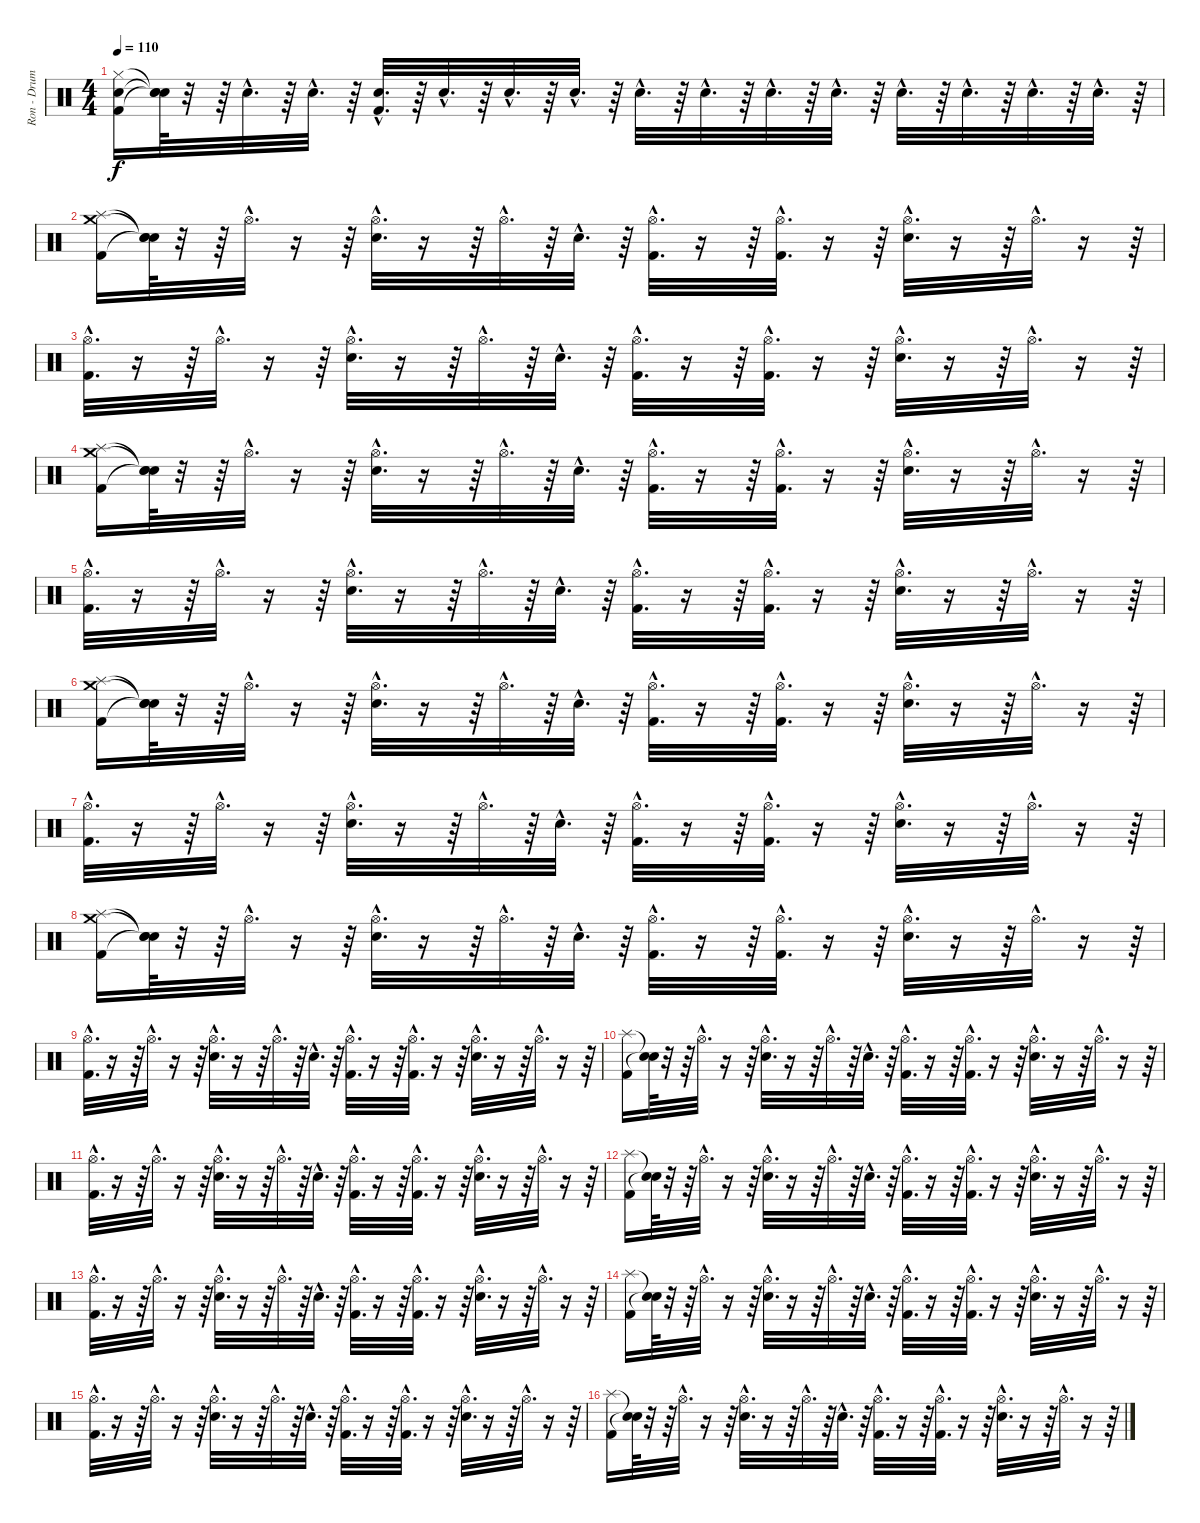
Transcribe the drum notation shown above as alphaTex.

\track ("Ron - Drums" "Ron - Drum") {instrument percussion}
\staff {score}
\articulation defaults
\ts (4 4)
\tempo 110
\clef neutral
\ks c
("Kick (hit) 2" "Electric Snare (hit)" "Hi-Hat (closed)").16{dy f} ("Snare (hit)"{t} "Snare (hit)"{t} "Snare (hit)"{t}).64 r.32 r.64 "Electric Snare (hit)"{hac}.32{d} r.64 "Electric Snare (hit)"{hac}.32{d} r.64 ("Electric Snare (hit)"{hac} "Kick (hit) 2"{hac}).32{d} r.64 "Electric Snare (hit)"{hac}.32{d} r.64 "Electric Snare (hit)"{hac}.32{d} r.64 "Electric Snare (hit)"{hac}.32{d} r.64 "Electric Snare (hit)"{hac}.32{d} r.64 "Electric Snare (hit)"{hac}.32{d} r.64 "Electric Snare (hit)"{hac}.32{d} r.64 "Electric Snare (hit)"{hac}.32{d} r.64 "Electric Snare (hit)"{hac}.32{d} r.64 "Electric Snare (hit)"{hac}.32{d} r.64 "Electric Snare (hit)"{hac}.32{d} r.64 "Electric Snare (hit)"{hac}.32{d} r.64 |
("Crash medium (hit)" "Splash (hit)" "Kick (hit) 2").16 ("Snare (hit)"{t} "Snare (hit)"{t} "Snare (hit)"{t}).64 r.32 r.64 "Hi-Hat (open)"{hac}.32{d} r.16 r.64 ("Hi-Hat (open)"{hac} "Electric Snare (hit)"{hac}).32{d} r.16 r.64 "Hi-Hat (open)"{hac}.32{d} r.64 "Electric Snare (hit)"{hac}.32{d} r.64 ("Hi-Hat (open)"{hac} "Kick (hit) 2"{hac}).32{d} r.16 r.64 ("Hi-Hat (open)"{hac} "Kick (hit) 2"{hac}).32{d} r.16 r.64 ("Hi-Hat (open)"{hac} "Electric Snare (hit)"{hac}).32{d} r.16 r.64 "Hi-Hat (open)"{hac}.32{d} r.16 r.64 |
("Hi-Hat (open)"{hac} "Kick (hit) 2"{hac}).32{d} r.16 r.64 "Hi-Hat (open)"{hac}.32{d} r.16 r.64 ("Hi-Hat (open)"{hac} "Electric Snare (hit)"{hac}).32{d} r.16 r.64 "Hi-Hat (open)"{hac}.32{d} r.64 "Electric Snare (hit)"{hac}.32{d} r.64 ("Hi-Hat (open)"{hac} "Kick (hit) 2"{hac}).32{d} r.16 r.64 ("Hi-Hat (open)"{hac} "Kick (hit) 2"{hac}).32{d} r.16 r.64 ("Hi-Hat (open)"{hac} "Electric Snare (hit)"{hac}).32{d} r.16 r.64 "Hi-Hat (open)"{hac}.32{d} r.16 r.64 |
("Crash medium (hit)" "Splash (hit)" "Kick (hit) 2").16 ("Snare (hit)"{t} "Snare (hit)"{t} "Snare (hit)"{t}).64 r.32 r.64 "Hi-Hat (open)"{hac}.32{d} r.16 r.64 ("Hi-Hat (open)"{hac} "Electric Snare (hit)"{hac}).32{d} r.16 r.64 "Hi-Hat (open)"{hac}.32{d} r.64 "Electric Snare (hit)"{hac}.32{d} r.64 ("Hi-Hat (open)"{hac} "Kick (hit) 2"{hac}).32{d} r.16 r.64 ("Hi-Hat (open)"{hac} "Kick (hit) 2"{hac}).32{d} r.16 r.64 ("Hi-Hat (open)"{hac} "Electric Snare (hit)"{hac}).32{d} r.16 r.64 "Hi-Hat (open)"{hac}.32{d} r.16 r.64 |
("Hi-Hat (open)"{hac} "Kick (hit) 2"{hac}).32{d} r.16 r.64 "Hi-Hat (open)"{hac}.32{d} r.16 r.64 ("Hi-Hat (open)"{hac} "Electric Snare (hit)"{hac}).32{d} r.16 r.64 "Hi-Hat (open)"{hac}.32{d} r.64 "Electric Snare (hit)"{hac}.32{d} r.64 ("Hi-Hat (open)"{hac} "Kick (hit) 2"{hac}).32{d} r.16 r.64 ("Hi-Hat (open)"{hac} "Kick (hit) 2"{hac}).32{d} r.16 r.64 ("Hi-Hat (open)"{hac} "Electric Snare (hit)"{hac}).32{d} r.16 r.64 "Hi-Hat (open)"{hac}.32{d} r.16 r.64 |
("Crash medium (hit)" "Splash (hit)" "Kick (hit) 2").16 ("Snare (hit)"{t} "Snare (hit)"{t} "Snare (hit)"{t}).64 r.32 r.64 "Hi-Hat (open)"{hac}.32{d} r.16 r.64 ("Hi-Hat (open)"{hac} "Electric Snare (hit)"{hac}).32{d} r.16 r.64 "Hi-Hat (open)"{hac}.32{d} r.64 "Electric Snare (hit)"{hac}.32{d} r.64 ("Hi-Hat (open)"{hac} "Kick (hit) 2"{hac}).32{d} r.16 r.64 ("Hi-Hat (open)"{hac} "Kick (hit) 2"{hac}).32{d} r.16 r.64 ("Hi-Hat (open)"{hac} "Electric Snare (hit)"{hac}).32{d} r.16 r.64 "Hi-Hat (open)"{hac}.32{d} r.16 r.64 |
("Hi-Hat (open)"{hac} "Kick (hit) 2"{hac}).32{d} r.16 r.64 "Hi-Hat (open)"{hac}.32{d} r.16 r.64 ("Hi-Hat (open)"{hac} "Electric Snare (hit)"{hac}).32{d} r.16 r.64 "Hi-Hat (open)"{hac}.32{d} r.64 "Electric Snare (hit)"{hac}.32{d} r.64 ("Hi-Hat (open)"{hac} "Kick (hit) 2"{hac}).32{d} r.16 r.64 ("Hi-Hat (open)"{hac} "Kick (hit) 2"{hac}).32{d} r.16 r.64 ("Hi-Hat (open)"{hac} "Electric Snare (hit)"{hac}).32{d} r.16 r.64 "Hi-Hat (open)"{hac}.32{d} r.16 r.64 |
("Crash medium (hit)" "Splash (hit)" "Kick (hit) 2").16 ("Snare (hit)"{t} "Snare (hit)"{t} "Snare (hit)"{t}).64 r.32 r.64 "Hi-Hat (open)"{hac}.32{d} r.16 r.64 ("Hi-Hat (open)"{hac} "Electric Snare (hit)"{hac}).32{d} r.16 r.64 "Hi-Hat (open)"{hac}.32{d} r.64 "Electric Snare (hit)"{hac}.32{d} r.64 ("Hi-Hat (open)"{hac} "Kick (hit) 2"{hac}).32{d} r.16 r.64 ("Hi-Hat (open)"{hac} "Kick (hit) 2"{hac}).32{d} r.16 r.64 ("Hi-Hat (open)"{hac} "Electric Snare (hit)"{hac}).32{d} r.16 r.64 "Hi-Hat (open)"{hac}.32{d} r.16 r.64 |
("Hi-Hat (open)"{hac} "Kick (hit) 2"{hac}).32{d} r.16 r.64 "Hi-Hat (open)"{hac}.32{d} r.16 r.64 ("Hi-Hat (open)"{hac} "Electric Snare (hit)"{hac}).32{d} r.16 r.64 "Hi-Hat (open)"{hac}.32{d} r.64 "Electric Snare (hit)"{hac}.32{d} r.64 ("Hi-Hat (open)"{hac} "Kick (hit) 2"{hac}).32{d} r.16 r.64 ("Hi-Hat (open)"{hac} "Kick (hit) 2"{hac}).32{d} r.16 r.64 ("Hi-Hat (open)"{hac} "Electric Snare (hit)"{hac}).32{d} r.16 r.64 "Hi-Hat (open)"{hac}.32{d} r.16 r.64 |
("Splash (hit)" "Kick (hit) 2").16 ("Snare (hit)"{t} "Snare (hit)"{t}).64 r.32 r.64 "Hi-Hat (open)"{hac}.32{d} r.16 r.64 ("Hi-Hat (open)"{hac} "Electric Snare (hit)"{hac}).32{d} r.16 r.64 "Hi-Hat (open)"{hac}.32{d} r.64 "Electric Snare (hit)"{hac}.32{d} r.64 ("Hi-Hat (open)"{hac} "Kick (hit) 2"{hac}).32{d} r.16 r.64 ("Hi-Hat (open)"{hac} "Kick (hit) 2"{hac}).32{d} r.16 r.64 ("Hi-Hat (open)"{hac} "Electric Snare (hit)"{hac}).32{d} r.16 r.64 "Hi-Hat (open)"{hac}.32{d} r.16 r.64 |
("Hi-Hat (open)"{hac} "Kick (hit) 2"{hac}).32{d} r.16 r.64 "Hi-Hat (open)"{hac}.32{d} r.16 r.64 ("Hi-Hat (open)"{hac} "Electric Snare (hit)"{hac}).32{d} r.16 r.64 "Hi-Hat (open)"{hac}.32{d} r.64 "Electric Snare (hit)"{hac}.32{d} r.64 ("Hi-Hat (open)"{hac} "Kick (hit) 2"{hac}).32{d} r.16 r.64 ("Hi-Hat (open)"{hac} "Kick (hit) 2"{hac}).32{d} r.16 r.64 ("Hi-Hat (open)"{hac} "Electric Snare (hit)"{hac}).32{d} r.16 r.64 "Hi-Hat (open)"{hac}.32{d} r.16 r.64 |
("Splash (hit)" "Kick (hit) 2").16 ("Snare (hit)"{t} "Snare (hit)"{t}).64 r.32 r.64 "Hi-Hat (open)"{hac}.32{d} r.16 r.64 ("Hi-Hat (open)"{hac} "Electric Snare (hit)"{hac}).32{d} r.16 r.64 "Hi-Hat (open)"{hac}.32{d} r.64 "Electric Snare (hit)"{hac}.32{d} r.64 ("Hi-Hat (open)"{hac} "Kick (hit) 2"{hac}).32{d} r.16 r.64 ("Hi-Hat (open)"{hac} "Kick (hit) 2"{hac}).32{d} r.16 r.64 ("Hi-Hat (open)"{hac} "Electric Snare (hit)"{hac}).32{d} r.16 r.64 "Hi-Hat (open)"{hac}.32{d} r.16 r.64 |
("Hi-Hat (open)"{hac} "Kick (hit) 2"{hac}).32{d} r.16 r.64 "Hi-Hat (open)"{hac}.32{d} r.16 r.64 ("Hi-Hat (open)"{hac} "Electric Snare (hit)"{hac}).32{d} r.16 r.64 "Hi-Hat (open)"{hac}.32{d} r.64 "Electric Snare (hit)"{hac}.32{d} r.64 ("Hi-Hat (open)"{hac} "Kick (hit) 2"{hac}).32{d} r.16 r.64 ("Hi-Hat (open)"{hac} "Kick (hit) 2"{hac}).32{d} r.16 r.64 ("Hi-Hat (open)"{hac} "Electric Snare (hit)"{hac}).32{d} r.16 r.64 "Hi-Hat (open)"{hac}.32{d} r.16 r.64 |
("Splash (hit)" "Kick (hit) 2").16 ("Snare (hit)"{t} "Snare (hit)"{t}).64 r.32 r.64 "Hi-Hat (open)"{hac}.32{d} r.16 r.64 ("Hi-Hat (open)"{hac} "Electric Snare (hit)"{hac}).32{d} r.16 r.64 "Hi-Hat (open)"{hac}.32{d} r.64 "Electric Snare (hit)"{hac}.32{d} r.64 ("Hi-Hat (open)"{hac} "Kick (hit) 2"{hac}).32{d} r.16 r.64 ("Hi-Hat (open)"{hac} "Kick (hit) 2"{hac}).32{d} r.16 r.64 ("Hi-Hat (open)"{hac} "Electric Snare (hit)"{hac}).32{d} r.16 r.64 "Hi-Hat (open)"{hac}.32{d} r.16 r.64 |
("Hi-Hat (open)"{hac} "Kick (hit) 2"{hac}).32{d} r.16 r.64 "Hi-Hat (open)"{hac}.32{d} r.16 r.64 ("Hi-Hat (open)"{hac} "Electric Snare (hit)"{hac}).32{d} r.16 r.64 "Hi-Hat (open)"{hac}.32{d} r.64 "Electric Snare (hit)"{hac}.32{d} r.64 ("Hi-Hat (open)"{hac} "Kick (hit) 2"{hac}).32{d} r.16 r.64 ("Hi-Hat (open)"{hac} "Kick (hit) 2"{hac}).32{d} r.16 r.64 ("Hi-Hat (open)"{hac} "Electric Snare (hit)"{hac}).32{d} r.16 r.64 "Hi-Hat (open)"{hac}.32{d} r.16 r.64 |
("Splash (hit)" "Kick (hit) 2").16 ("Snare (hit)"{t} "Snare (hit)"{t}).64 r.32 r.64 "Hi-Hat (open)"{hac}.32{d} r.16 r.64 ("Hi-Hat (open)"{hac} "Electric Snare (hit)"{hac}).32{d} r.16 r.64 "Hi-Hat (open)"{hac}.32{d} r.64 "Electric Snare (hit)"{hac}.32{d} r.64 ("Hi-Hat (open)"{hac} "Kick (hit) 2"{hac}).32{d} r.16 r.64 ("Hi-Hat (open)"{hac} "Kick (hit) 2"{hac}).32{d} r.16 r.64 ("Hi-Hat (open)"{hac} "Electric Snare (hit)"{hac}).32{d} r.16 r.64 "Hi-Hat (open)"{hac}.32{d} r.16 r.64
